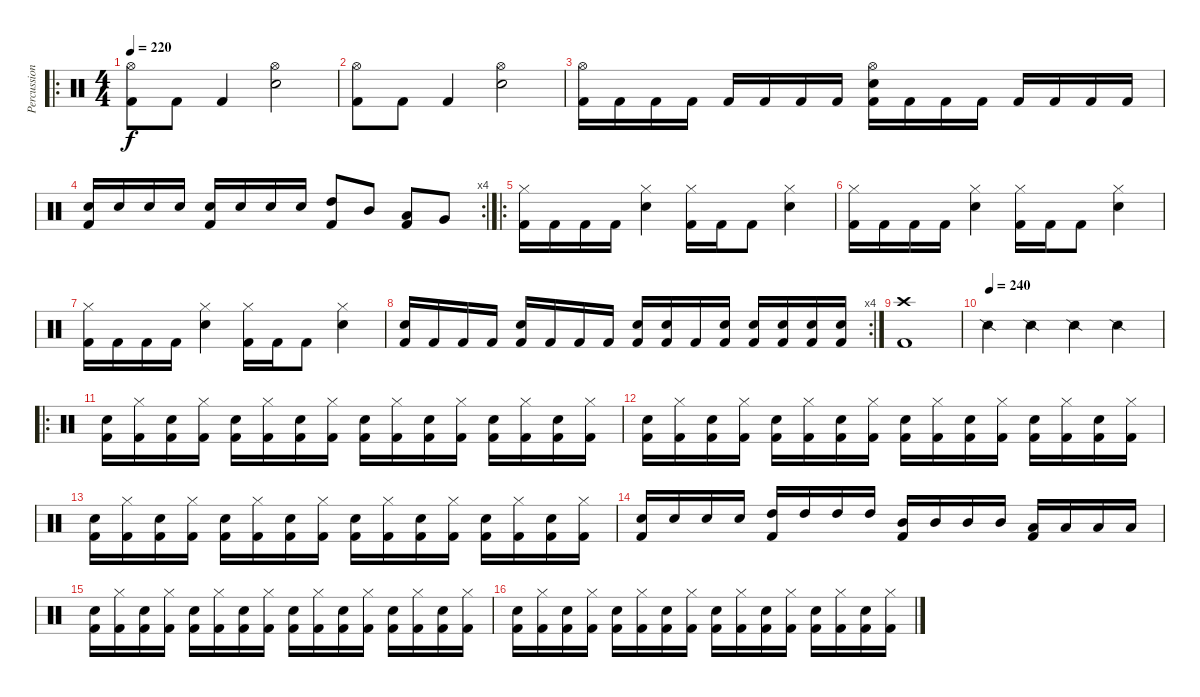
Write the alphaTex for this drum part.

\track ("Percussion" "Percussion") {instrument percussion}
\staff {score}
\articulation defaults
\ro
\ts (4 4)
\tempo 220
\clef neutral
\ks c
("Hi-Hat (open)" "Kick (hit) 2").8{dy f} "Kick (hit) 2".8 "Kick (hit) 2".4 ("Hi-Hat (open)" "Snare (hit) 2").2 |
("Hi-Hat (open)" "Kick (hit) 2").8 "Kick (hit) 2".8 "Kick (hit) 2".4 ("Hi-Hat (open)" "Snare (hit) 2").2 |
("Hi-Hat (open)" "Kick (hit) 2").16 "Kick (hit) 2".16 "Kick (hit) 2".16 "Kick (hit) 2".16 "Kick (hit) 2".16 "Kick (hit) 2".16 "Kick (hit) 2".16 "Kick (hit) 2".16 ("Hi-Hat (open)" "Snare (hit) 2" "Kick (hit) 2").16 "Kick (hit) 2".16 "Kick (hit) 2".16 "Kick (hit) 2".16 "Kick (hit) 2".16 "Kick (hit) 2".16 "Kick (hit) 2".16 "Kick (hit) 2".16 |
\rc 4
("Snare (hit) 2" "Kick (hit) 2").16 "Snare (hit) 2".16 "Snare (hit) 2".16 "Snare (hit) 2".16 ("Snare (hit) 2" "Kick (hit) 2").16 "Snare (hit) 2".16 "Snare (hit) 2".16 "Snare (hit) 2".16 ("High Tom (hit)" "Kick (hit) 2").8 "Mid Tom (hit)".8 ("Low Tom (hit)" "Kick (hit) 2").8 "Very Low Tom (hit)".8 |
\ro
("Hi-Hat (closed)" "Kick (hit) 2").16 "Kick (hit) 2".16 "Kick (hit) 2".16 "Kick (hit) 2".16 ("Hi-Hat (closed)" "Snare (hit) 2").4 ("Hi-Hat (closed)" "Kick (hit) 2").16 "Kick (hit) 2".16 "Kick (hit) 2".8 ("Hi-Hat (closed)" "Snare (hit) 2").4 |
("Hi-Hat (closed)" "Kick (hit) 2").16 "Kick (hit) 2".16 "Kick (hit) 2".16 "Kick (hit) 2".16 ("Hi-Hat (closed)" "Snare (hit) 2").4 ("Hi-Hat (closed)" "Kick (hit) 2").16 "Kick (hit) 2".16 "Kick (hit) 2".8 ("Hi-Hat (closed)" "Snare (hit) 2").4 |
("Hi-Hat (closed)" "Kick (hit) 2").16 "Kick (hit) 2".16 "Kick (hit) 2".16 "Kick (hit) 2".16 ("Hi-Hat (closed)" "Snare (hit) 2").4 ("Hi-Hat (closed)" "Kick (hit) 2").16 "Kick (hit) 2".16 "Kick (hit) 2".8 ("Hi-Hat (closed)" "Snare (hit) 2").4 |
\rc 4
("Snare (hit) 2" "Kick (hit) 2").16 "Kick (hit) 2".16 "Kick (hit) 2".16 "Kick (hit) 2".16 ("Snare (hit) 2" "Kick (hit) 2").16 "Kick (hit) 2".16 "Kick (hit) 2".16 "Kick (hit) 2".16 ("Snare (hit) 2" "Kick (hit) 2").16 ("Snare (hit) 2" "Kick (hit) 2").16 "Kick (hit) 2".16 ("Snare (hit) 2" "Kick (hit) 2").16 ("Snare (hit) 2" "Kick (hit) 2").16 ("Snare (hit) 2" "Kick (hit) 2").16 ("Snare (hit) 2" "Kick (hit) 2").16 ("Snare (hit) 2" "Kick (hit) 2").16 |
("Kick (hit) 2" "Crash high (hit)").1 |
\tempo (240)
"Snare (side stick) 2".4 "Snare (side stick) 2".4 "Snare (side stick) 2".4 "Snare (side stick) 2".4 |
\ro
("Snare (hit) 2" "Kick (hit) 2").16 ("Hi-Hat (closed)" "Kick (hit) 2").16 ("Snare (hit) 2" "Kick (hit) 2").16 ("Hi-Hat (closed)" "Kick (hit) 2").16 ("Snare (hit) 2" "Kick (hit) 2").16 ("Hi-Hat (closed)" "Kick (hit) 2").16 ("Snare (hit) 2" "Kick (hit) 2").16 ("Hi-Hat (closed)" "Kick (hit) 2").16 ("Snare (hit) 2" "Kick (hit) 2").16 ("Hi-Hat (closed)" "Kick (hit) 2").16 ("Snare (hit) 2" "Kick (hit) 2").16 ("Hi-Hat (closed)" "Kick (hit) 2").16 ("Snare (hit) 2" "Kick (hit) 2").16 ("Hi-Hat (closed)" "Kick (hit) 2").16 ("Snare (hit) 2" "Kick (hit) 2").16 ("Hi-Hat (closed)" "Kick (hit) 2").16 |
("Snare (hit) 2" "Kick (hit) 2").16 ("Hi-Hat (closed)" "Kick (hit) 2").16 ("Snare (hit) 2" "Kick (hit) 2").16 ("Hi-Hat (closed)" "Kick (hit) 2").16 ("Snare (hit) 2" "Kick (hit) 2").16 ("Hi-Hat (closed)" "Kick (hit) 2").16 ("Snare (hit) 2" "Kick (hit) 2").16 ("Hi-Hat (closed)" "Kick (hit) 2").16 ("Snare (hit) 2" "Kick (hit) 2").16 ("Hi-Hat (closed)" "Kick (hit) 2").16 ("Snare (hit) 2" "Kick (hit) 2").16 ("Hi-Hat (closed)" "Kick (hit) 2").16 ("Snare (hit) 2" "Kick (hit) 2").16 ("Hi-Hat (closed)" "Kick (hit) 2").16 ("Snare (hit) 2" "Kick (hit) 2").16 ("Hi-Hat (closed)" "Kick (hit) 2").16 |
("Snare (hit) 2" "Kick (hit) 2").16 ("Hi-Hat (closed)" "Kick (hit) 2").16 ("Snare (hit) 2" "Kick (hit) 2").16 ("Hi-Hat (closed)" "Kick (hit) 2").16 ("Snare (hit) 2" "Kick (hit) 2").16 ("Hi-Hat (closed)" "Kick (hit) 2").16 ("Snare (hit) 2" "Kick (hit) 2").16 ("Hi-Hat (closed)" "Kick (hit) 2").16 ("Snare (hit) 2" "Kick (hit) 2").16 ("Hi-Hat (closed)" "Kick (hit) 2").16 ("Snare (hit) 2" "Kick (hit) 2").16 ("Hi-Hat (closed)" "Kick (hit) 2").16 ("Snare (hit) 2" "Kick (hit) 2").16 ("Hi-Hat (closed)" "Kick (hit) 2").16 ("Snare (hit) 2" "Kick (hit) 2").16 ("Hi-Hat (closed)" "Kick (hit) 2").16 |
("Snare (hit) 2" "Kick (hit) 2").16 "Snare (hit) 2".16 "Snare (hit) 2".16 "Snare (hit) 2".16 ("High Tom (hit)" "Kick (hit) 2").16 "High Tom (hit)".16 "High Tom (hit)".16 "High Tom (hit)".16 ("Mid Tom (hit)" "Kick (hit) 2").16 "Mid Tom (hit)".16 "Mid Tom (hit)".16 "Mid Tom (hit)".16 ("Low Tom (hit)" "Kick (hit) 2").16 "Low Tom (hit)".16 "Low Tom (hit)".16 "Low Tom (hit)".16 |
("Snare (hit) 2" "Kick (hit) 2").16 ("Hi-Hat (closed)" "Kick (hit) 2").16 ("Snare (hit) 2" "Kick (hit) 2").16 ("Hi-Hat (closed)" "Kick (hit) 2").16 ("Snare (hit) 2" "Kick (hit) 2").16 ("Hi-Hat (closed)" "Kick (hit) 2").16 ("Snare (hit) 2" "Kick (hit) 2").16 ("Hi-Hat (closed)" "Kick (hit) 2").16 ("Snare (hit) 2" "Kick (hit) 2").16 ("Hi-Hat (closed)" "Kick (hit) 2").16 ("Snare (hit) 2" "Kick (hit) 2").16 ("Hi-Hat (closed)" "Kick (hit) 2").16 ("Snare (hit) 2" "Kick (hit) 2").16 ("Hi-Hat (closed)" "Kick (hit) 2").16 ("Snare (hit) 2" "Kick (hit) 2").16 ("Hi-Hat (closed)" "Kick (hit) 2").16 |
("Snare (hit) 2" "Kick (hit) 2").16 ("Hi-Hat (closed)" "Kick (hit) 2").16 ("Snare (hit) 2" "Kick (hit) 2").16 ("Hi-Hat (closed)" "Kick (hit) 2").16 ("Snare (hit) 2" "Kick (hit) 2").16 ("Hi-Hat (closed)" "Kick (hit) 2").16 ("Snare (hit) 2" "Kick (hit) 2").16 ("Hi-Hat (closed)" "Kick (hit) 2").16 ("Snare (hit) 2" "Kick (hit) 2").16 ("Hi-Hat (closed)" "Kick (hit) 2").16 ("Snare (hit) 2" "Kick (hit) 2").16 ("Hi-Hat (closed)" "Kick (hit) 2").16 ("Snare (hit) 2" "Kick (hit) 2").16 ("Hi-Hat (closed)" "Kick (hit) 2").16 ("Snare (hit) 2" "Kick (hit) 2").16 ("Hi-Hat (closed)" "Kick (hit) 2").16
